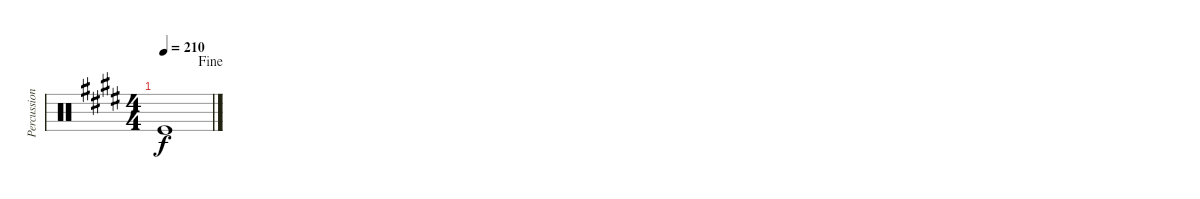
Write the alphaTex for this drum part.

\track ("Percussion" "Percussion") {instrument percussion}
\staff {score}
\articulation defaults
\ts (4 4)
\jump fine
\tempo 210
\clef neutral
\ks e "Kick (hit)".1{dy f}
